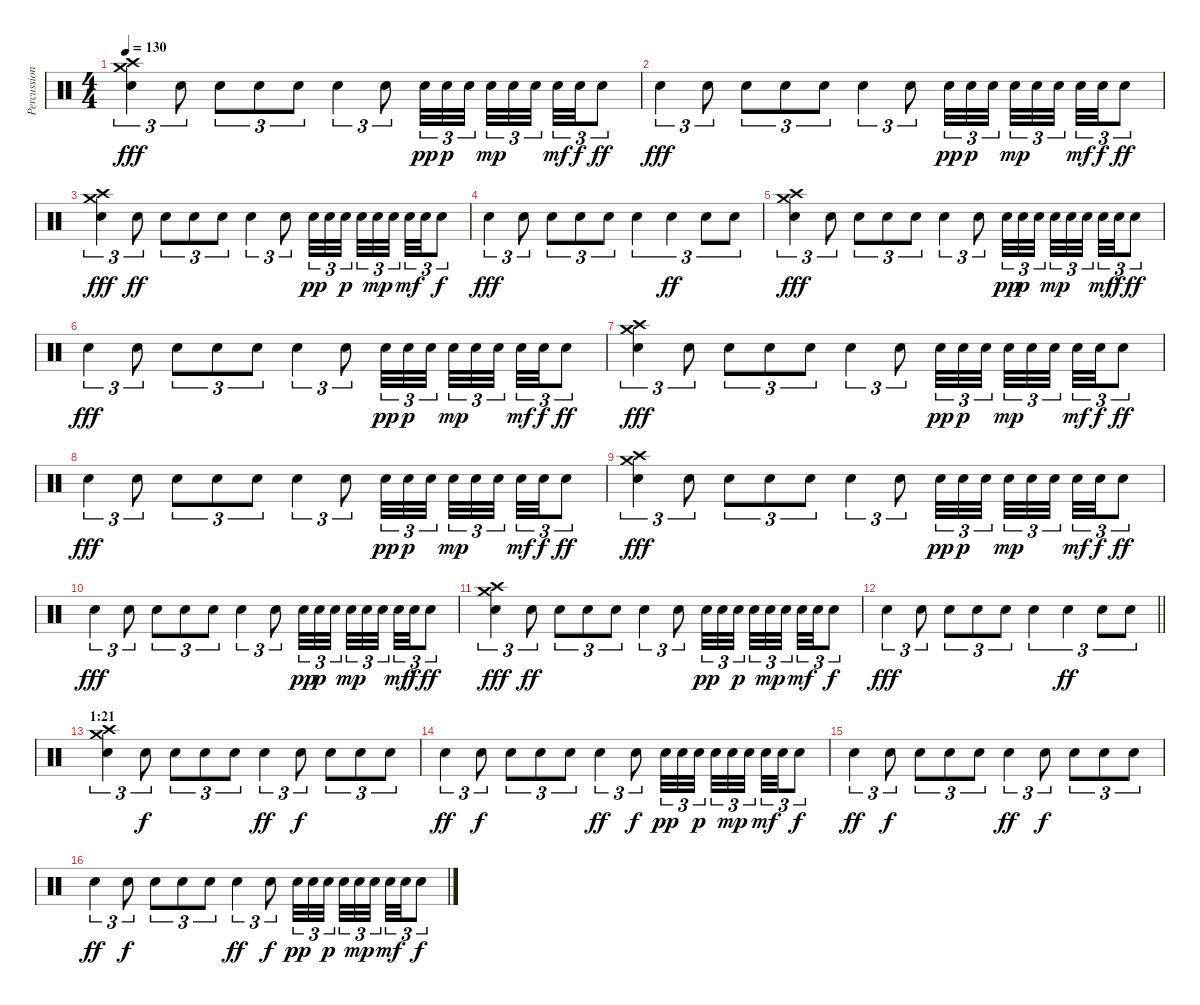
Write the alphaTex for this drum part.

\track ("Percussion" "Percussion") {instrument percussion}
\staff {score}
\articulation defaults
\ts (4 4)
\tempo 130
\clef neutral
\ks c
("Crash medium (hit)" "Crash high (hit)" "Electric Snare (hit)").4{tu (3 2) dy fff} "Electric Snare (hit)".8{tu (3 2)} "Electric Snare (hit)".8{tu (3 2)} "Electric Snare (hit)".8{tu (3 2)} "Electric Snare (hit)".8{tu (3 2)} "Electric Snare (hit)".4{tu (3 2)} "Electric Snare (hit)".8{tu (3 2)} "Electric Snare (hit)".32{tu (3 2) dy pp} "Electric Snare (hit)".32{tu (3 2) dy p} "Electric Snare (hit)".32{tu (3 2) beam splitsecondary} "Electric Snare (hit)".32{tu (3 2) dy mp} "Electric Snare (hit)".32{tu (3 2)} "Electric Snare (hit)".32{tu (3 2) beam splitsecondary} "Electric Snare (hit)".32{tu (3 2) dy mf} "Electric Snare (hit)".32{tu (3 2) dy f} "Electric Snare (hit)".8{tu (3 2) dy ff} |
"Electric Snare (hit)".4{tu (3 2) dy fff} "Electric Snare (hit)".8{tu (3 2)} "Electric Snare (hit)".8{tu (3 2)} "Electric Snare (hit)".8{tu (3 2)} "Electric Snare (hit)".8{tu (3 2)} "Electric Snare (hit)".4{tu (3 2)} "Electric Snare (hit)".8{tu (3 2)} "Electric Snare (hit)".32{tu (3 2) dy pp} "Electric Snare (hit)".32{tu (3 2) dy p} "Electric Snare (hit)".32{tu (3 2) beam splitsecondary} "Electric Snare (hit)".32{tu (3 2) dy mp} "Electric Snare (hit)".32{tu (3 2)} "Electric Snare (hit)".32{tu (3 2) beam splitsecondary} "Electric Snare (hit)".32{tu (3 2) dy mf} "Electric Snare (hit)".32{tu (3 2) dy f} "Electric Snare (hit)".8{tu (3 2) dy ff} |
("Crash medium (hit)" "Crash high (hit)" "Electric Snare (hit)").4{tu (3 2) dy fff} "Electric Snare (hit)".8{tu (3 2) dy ff} "Electric Snare (hit)".8{tu (3 2)} "Electric Snare (hit)".8{tu (3 2)} "Electric Snare (hit)".8{tu (3 2)} "Electric Snare (hit)".4{tu (3 2)} "Electric Snare (hit)".8{tu (3 2)} "Electric Snare (hit)".32{tu (3 2) dy pp} "Electric Snare (hit)".32{tu (3 2)} "Electric Snare (hit)".32{tu (3 2) dy p beam splitsecondary} "Electric Snare (hit)".32{tu (3 2)} "Electric Snare (hit)".32{tu (3 2) dy mp} "Electric Snare (hit)".32{tu (3 2) beam splitsecondary} "Electric Snare (hit)".32{tu (3 2) dy mf} "Electric Snare (hit)".32{tu (3 2)} "Electric Snare (hit)".8{tu (3 2) dy f} |
"Electric Snare (hit)".4{tu (3 2) dy fff} "Electric Snare (hit)".8{tu (3 2)} "Electric Snare (hit)".8{tu (3 2)} "Electric Snare (hit)".8{tu (3 2)} "Electric Snare (hit)".8{tu (3 2)} "Electric Snare (hit)".4{tu (3 2)} "Electric Snare (hit)".4{tu (3 2) dy ff} "Electric Snare (hit)".8{tu (3 2)} "Electric Snare (hit)".8{tu (3 2)} |
("Crash medium (hit)" "Crash high (hit)" "Electric Snare (hit)").4{tu (3 2) dy fff} "Electric Snare (hit)".8{tu (3 2)} "Electric Snare (hit)".8{tu (3 2)} "Electric Snare (hit)".8{tu (3 2)} "Electric Snare (hit)".8{tu (3 2)} "Electric Snare (hit)".4{tu (3 2)} "Electric Snare (hit)".8{tu (3 2)} "Electric Snare (hit)".32{tu (3 2) dy pp} "Electric Snare (hit)".32{tu (3 2) dy p} "Electric Snare (hit)".32{tu (3 2) beam splitsecondary} "Electric Snare (hit)".32{tu (3 2) dy mp} "Electric Snare (hit)".32{tu (3 2)} "Electric Snare (hit)".32{tu (3 2) beam splitsecondary} "Electric Snare (hit)".32{tu (3 2) dy mf} "Electric Snare (hit)".32{tu (3 2) dy f} "Electric Snare (hit)".8{tu (3 2) dy ff} |
"Electric Snare (hit)".4{tu (3 2) dy fff} "Electric Snare (hit)".8{tu (3 2)} "Electric Snare (hit)".8{tu (3 2)} "Electric Snare (hit)".8{tu (3 2)} "Electric Snare (hit)".8{tu (3 2)} "Electric Snare (hit)".4{tu (3 2)} "Electric Snare (hit)".8{tu (3 2)} "Electric Snare (hit)".32{tu (3 2) dy pp} "Electric Snare (hit)".32{tu (3 2) dy p} "Electric Snare (hit)".32{tu (3 2) beam splitsecondary} "Electric Snare (hit)".32{tu (3 2) dy mp} "Electric Snare (hit)".32{tu (3 2)} "Electric Snare (hit)".32{tu (3 2) beam splitsecondary} "Electric Snare (hit)".32{tu (3 2) dy mf} "Electric Snare (hit)".32{tu (3 2) dy f} "Electric Snare (hit)".8{tu (3 2) dy ff} |
("Crash medium (hit)" "Crash high (hit)" "Electric Snare (hit)").4{tu (3 2) dy fff} "Electric Snare (hit)".8{tu (3 2)} "Electric Snare (hit)".8{tu (3 2)} "Electric Snare (hit)".8{tu (3 2)} "Electric Snare (hit)".8{tu (3 2)} "Electric Snare (hit)".4{tu (3 2)} "Electric Snare (hit)".8{tu (3 2)} "Electric Snare (hit)".32{tu (3 2) dy pp} "Electric Snare (hit)".32{tu (3 2) dy p} "Electric Snare (hit)".32{tu (3 2) beam splitsecondary} "Electric Snare (hit)".32{tu (3 2) dy mp} "Electric Snare (hit)".32{tu (3 2)} "Electric Snare (hit)".32{tu (3 2) beam splitsecondary} "Electric Snare (hit)".32{tu (3 2) dy mf} "Electric Snare (hit)".32{tu (3 2) dy f} "Electric Snare (hit)".8{tu (3 2) dy ff} |
"Electric Snare (hit)".4{tu (3 2) dy fff} "Electric Snare (hit)".8{tu (3 2)} "Electric Snare (hit)".8{tu (3 2)} "Electric Snare (hit)".8{tu (3 2)} "Electric Snare (hit)".8{tu (3 2)} "Electric Snare (hit)".4{tu (3 2)} "Electric Snare (hit)".8{tu (3 2)} "Electric Snare (hit)".32{tu (3 2) dy pp} "Electric Snare (hit)".32{tu (3 2) dy p} "Electric Snare (hit)".32{tu (3 2) beam splitsecondary} "Electric Snare (hit)".32{tu (3 2) dy mp} "Electric Snare (hit)".32{tu (3 2)} "Electric Snare (hit)".32{tu (3 2) beam splitsecondary} "Electric Snare (hit)".32{tu (3 2) dy mf} "Electric Snare (hit)".32{tu (3 2) dy f} "Electric Snare (hit)".8{tu (3 2) dy ff} |
("Crash medium (hit)" "Crash high (hit)" "Electric Snare (hit)").4{tu (3 2) dy fff} "Electric Snare (hit)".8{tu (3 2)} "Electric Snare (hit)".8{tu (3 2)} "Electric Snare (hit)".8{tu (3 2)} "Electric Snare (hit)".8{tu (3 2)} "Electric Snare (hit)".4{tu (3 2)} "Electric Snare (hit)".8{tu (3 2)} "Electric Snare (hit)".32{tu (3 2) dy pp} "Electric Snare (hit)".32{tu (3 2) dy p} "Electric Snare (hit)".32{tu (3 2) beam splitsecondary} "Electric Snare (hit)".32{tu (3 2) dy mp} "Electric Snare (hit)".32{tu (3 2)} "Electric Snare (hit)".32{tu (3 2) beam splitsecondary} "Electric Snare (hit)".32{tu (3 2) dy mf} "Electric Snare (hit)".32{tu (3 2) dy f} "Electric Snare (hit)".8{tu (3 2) dy ff} |
"Electric Snare (hit)".4{tu (3 2) dy fff} "Electric Snare (hit)".8{tu (3 2)} "Electric Snare (hit)".8{tu (3 2)} "Electric Snare (hit)".8{tu (3 2)} "Electric Snare (hit)".8{tu (3 2)} "Electric Snare (hit)".4{tu (3 2)} "Electric Snare (hit)".8{tu (3 2)} "Electric Snare (hit)".32{tu (3 2) dy pp} "Electric Snare (hit)".32{tu (3 2) dy p} "Electric Snare (hit)".32{tu (3 2) beam splitsecondary} "Electric Snare (hit)".32{tu (3 2) dy mp} "Electric Snare (hit)".32{tu (3 2)} "Electric Snare (hit)".32{tu (3 2) beam splitsecondary} "Electric Snare (hit)".32{tu (3 2) dy mf} "Electric Snare (hit)".32{tu (3 2) dy f} "Electric Snare (hit)".8{tu (3 2) dy ff} |
("Crash medium (hit)" "Crash high (hit)" "Electric Snare (hit)").4{tu (3 2) dy fff} "Electric Snare (hit)".8{tu (3 2) dy ff} "Electric Snare (hit)".8{tu (3 2)} "Electric Snare (hit)".8{tu (3 2)} "Electric Snare (hit)".8{tu (3 2)} "Electric Snare (hit)".4{tu (3 2)} "Electric Snare (hit)".8{tu (3 2)} "Electric Snare (hit)".32{tu (3 2) dy pp} "Electric Snare (hit)".32{tu (3 2)} "Electric Snare (hit)".32{tu (3 2) dy p beam splitsecondary} "Electric Snare (hit)".32{tu (3 2)} "Electric Snare (hit)".32{tu (3 2) dy mp} "Electric Snare (hit)".32{tu (3 2) beam splitsecondary} "Electric Snare (hit)".32{tu (3 2) dy mf} "Electric Snare (hit)".32{tu (3 2)} "Electric Snare (hit)".8{tu (3 2) dy f} |
\barLineRight lightlight "Electric Snare (hit)".4{tu (3 2) dy fff} "Electric Snare (hit)".8{tu (3 2)} "Electric Snare (hit)".8{tu (3 2)} "Electric Snare (hit)".8{tu (3 2)} "Electric Snare (hit)".8{tu (3 2)} "Electric Snare (hit)".4{tu (3 2)} "Electric Snare (hit)".4{tu (3 2) dy ff} "Electric Snare (hit)".8{tu (3 2)} "Electric Snare (hit)".8{tu (3 2)}
|
\section ("" "1:21")
("Crash medium (hit)" "Crash high (hit)" "Electric Snare (hit)").4{tu (3 2)} "Electric Snare (hit)".8{tu (3 2) dy f} "Electric Snare (hit)".8{tu (3 2)} "Electric Snare (hit)".8{tu (3 2)} "Electric Snare (hit)".8{tu (3 2)} "Electric Snare (hit)".4{tu (3 2) dy ff} "Electric Snare (hit)".8{tu (3 2) dy f} "Electric Snare (hit)".8{tu (3 2)} "Electric Snare (hit)".8{tu (3 2)} "Electric Snare (hit)".8{tu (3 2)} |
"Electric Snare (hit)".4{tu (3 2) dy ff} "Electric Snare (hit)".8{tu (3 2) dy f} "Electric Snare (hit)".8{tu (3 2)} "Electric Snare (hit)".8{tu (3 2)} "Electric Snare (hit)".8{tu (3 2)} "Electric Snare (hit)".4{tu (3 2) dy ff} "Electric Snare (hit)".8{tu (3 2) dy f} "Electric Snare (hit)".32{tu (3 2) dy pp} "Electric Snare (hit)".32{tu (3 2)} "Electric Snare (hit)".32{tu (3 2) dy p beam splitsecondary} "Electric Snare (hit)".32{tu (3 2)} "Electric Snare (hit)".32{tu (3 2) dy mp} "Electric Snare (hit)".32{tu (3 2) beam splitsecondary} "Electric Snare (hit)".32{tu (3 2) dy mf} "Electric Snare (hit)".32{tu (3 2)} "Electric Snare (hit)".8{tu (3 2) dy f} |
"Electric Snare (hit)".4{tu (3 2) dy ff} "Electric Snare (hit)".8{tu (3 2) dy f} "Electric Snare (hit)".8{tu (3 2)} "Electric Snare (hit)".8{tu (3 2)} "Electric Snare (hit)".8{tu (3 2)} "Electric Snare (hit)".4{tu (3 2) dy ff} "Electric Snare (hit)".8{tu (3 2) dy f} "Electric Snare (hit)".8{tu (3 2)} "Electric Snare (hit)".8{tu (3 2)} "Electric Snare (hit)".8{tu (3 2)} |
"Electric Snare (hit)".4{tu (3 2) dy ff} "Electric Snare (hit)".8{tu (3 2) dy f} "Electric Snare (hit)".8{tu (3 2)} "Electric Snare (hit)".8{tu (3 2)} "Electric Snare (hit)".8{tu (3 2)} "Electric Snare (hit)".4{tu (3 2) dy ff} "Electric Snare (hit)".8{tu (3 2) dy f} "Electric Snare (hit)".32{tu (3 2) dy pp} "Electric Snare (hit)".32{tu (3 2)} "Electric Snare (hit)".32{tu (3 2) dy p beam splitsecondary} "Electric Snare (hit)".32{tu (3 2)} "Electric Snare (hit)".32{tu (3 2) dy mp} "Electric Snare (hit)".32{tu (3 2) beam splitsecondary} "Electric Snare (hit)".32{tu (3 2) dy mf} "Electric Snare (hit)".32{tu (3 2)} "Electric Snare (hit)".8{tu (3 2) dy f}
